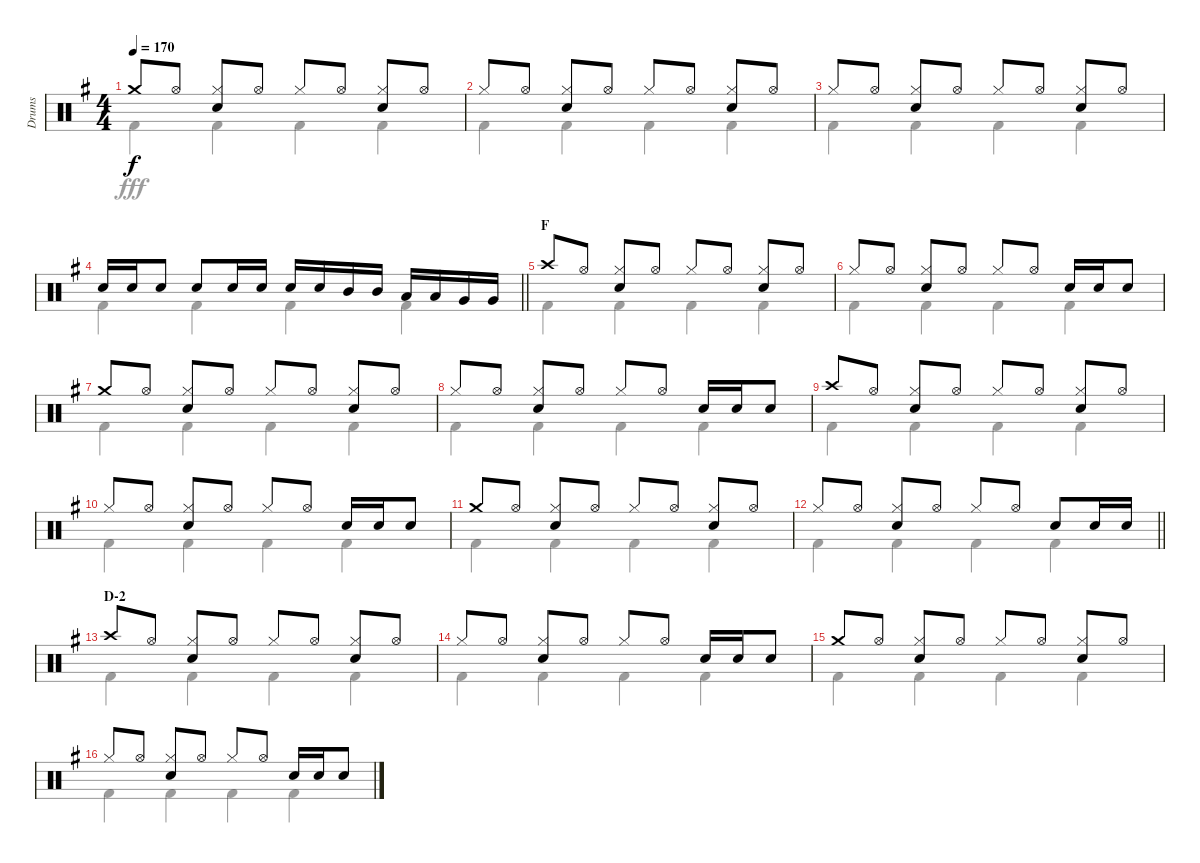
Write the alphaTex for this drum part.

\track ("Drums" "Drums") {instrument percussion}
\staff {score}
\articulation defaults
\voice
\ts (4 4)
\tempo 170
\clef neutral
\ks g "Crash medium (hit)".8{dy f} "Hi-Hat (open)".8
("Hi-Hat (closed)" "Snare (hit) 2").8 "Hi-Hat (open)".8 "Hi-Hat (closed)".8 "Hi-Hat (open)".8 ("Hi-Hat (closed)" "Snare (hit) 2").8 "Hi-Hat (open)".8 |
"Hi-Hat (closed)".8 "Hi-Hat (open)".8 ("Hi-Hat (closed)" "Snare (hit) 2").8 "Hi-Hat (open)".8 "Hi-Hat (closed)".8 "Hi-Hat (open)".8 ("Hi-Hat (closed)" "Snare (hit) 2").8 "Hi-Hat (open)".8 |
"Hi-Hat (closed)".8 "Hi-Hat (open)".8 ("Hi-Hat (closed)" "Snare (hit) 2").8 "Hi-Hat (open)".8 "Hi-Hat (closed)".8 "Hi-Hat (open)".8 ("Hi-Hat (closed)" "Snare (hit) 2").8 "Hi-Hat (open)".8 |
\barLineRight lightlight "Snare (hit) 2".16 "Snare (hit) 2".16 "Snare (hit) 2".8 "Snare (hit) 2".8 "Snare (hit) 2".16 "Snare (hit) 2".16 "Snare (hit) 2".16 "Snare (hit) 2".16 "Mid Tom (hit)".16 "Mid Tom (hit)".16 "Low Tom (hit)".16 "Low Tom (hit)".16 "Very Low Tom (hit)".16 "Very Low Tom (hit)".16
|
\section ("" "F")
"Crash high (hit)".8 "Hi-Hat (open)".8 ("Hi-Hat (closed)" "Snare (hit) 2").8 "Hi-Hat (open)".8 "Hi-Hat (closed)".8 "Hi-Hat (open)".8 ("Hi-Hat (closed)" "Snare (hit) 2").8 "Hi-Hat (open)".8 |
"Hi-Hat (closed)".8 "Hi-Hat (open)".8 ("Hi-Hat (closed)" "Snare (hit) 2").8 "Hi-Hat (open)".8 "Hi-Hat (closed)".8 "Hi-Hat (open)".8 "Snare (hit) 2".16 "Snare (hit) 2".16 "Snare (hit) 2".8 |
"Crash medium (hit)".8 "Hi-Hat (open)".8 ("Hi-Hat (closed)" "Snare (hit) 2").8 "Hi-Hat (open)".8 "Hi-Hat (closed)".8 "Hi-Hat (open)".8 ("Hi-Hat (closed)" "Snare (hit) 2").8 "Hi-Hat (open)".8 |
"Hi-Hat (closed)".8 "Hi-Hat (open)".8 ("Hi-Hat (closed)" "Snare (hit) 2").8 "Hi-Hat (open)".8 "Hi-Hat (closed)".8 "Hi-Hat (open)".8 "Snare (hit) 2".16 "Snare (hit) 2".16 "Snare (hit) 2".8 |
"Crash high (hit)".8 "Hi-Hat (open)".8 ("Hi-Hat (closed)" "Snare (hit) 2").8 "Hi-Hat (open)".8 "Hi-Hat (closed)".8 "Hi-Hat (open)".8 ("Hi-Hat (closed)" "Snare (hit) 2").8 "Hi-Hat (open)".8 |
"Hi-Hat (closed)".8 "Hi-Hat (open)".8 ("Hi-Hat (closed)" "Snare (hit) 2").8 "Hi-Hat (open)".8 "Hi-Hat (closed)".8 "Hi-Hat (open)".8 "Snare (hit) 2".16 "Snare (hit) 2".16 "Snare (hit) 2".8 |
"Crash medium (hit)".8 "Hi-Hat (open)".8 ("Hi-Hat (closed)" "Snare (hit) 2").8 "Hi-Hat (open)".8 "Hi-Hat (closed)".8 "Hi-Hat (open)".8 ("Hi-Hat (closed)" "Snare (hit) 2").8 "Hi-Hat (open)".8 |
\barLineRight lightlight "Hi-Hat (closed)".8 "Hi-Hat (open)".8
("Hi-Hat (closed)" "Snare (hit) 2").8 "Hi-Hat (open)".8 "Hi-Hat (closed)".8 "Hi-Hat (open)".8 "Snare (hit) 2".8 "Snare (hit) 2".16 "Snare (hit) 2".16 |
\section ("" "D-2")
"Crash high (hit)".8 "Hi-Hat (open)".8 ("Hi-Hat (closed)" "Snare (hit) 2").8 "Hi-Hat (open)".8 "Hi-Hat (closed)".8 "Hi-Hat (open)".8 ("Hi-Hat (closed)" "Snare (hit) 2").8 "Hi-Hat (open)".8 |
"Hi-Hat (closed)".8 "Hi-Hat (open)".8 ("Hi-Hat (closed)" "Snare (hit) 2").8 "Hi-Hat (open)".8 "Hi-Hat (closed)".8 "Hi-Hat (open)".8 "Snare (hit) 2".16 "Snare (hit) 2".16 "Snare (hit) 2".8 |
"Crash medium (hit)".8 "Hi-Hat (open)".8 ("Hi-Hat (closed)" "Snare (hit) 2").8 "Hi-Hat (open)".8 "Hi-Hat (closed)".8 "Hi-Hat (open)".8 ("Hi-Hat (closed)" "Snare (hit) 2").8 "Hi-Hat (open)".8 |
"Hi-Hat (closed)".8 "Hi-Hat (open)".8 ("Hi-Hat (closed)" "Snare (hit) 2").8 "Hi-Hat (open)".8 "Hi-Hat (closed)".8 "Hi-Hat (open)".8 "Snare (hit) 2".16 "Snare (hit) 2".16 "Snare (hit) 2".8
\voice
\clef neutral
\ottava regular
\simile none
\ks g "Kick (hit) 2".4{dy fff} "Kick (hit) 2".4 "Kick (hit) 2".4 "Kick (hit) 2".4
|
"Kick (hit) 2".4 "Kick (hit) 2".4 "Kick (hit) 2".4 "Kick (hit) 2".4 |
"Kick (hit) 2".4 "Kick (hit) 2".4 "Kick (hit) 2".4 "Kick (hit) 2".4 |
\barLineRight lightlight "Kick (hit) 2".4 "Kick (hit) 2".4 "Kick (hit) 2".4 "Kick (hit) 2".4
|
"Kick (hit) 2".4 "Kick (hit) 2".4 "Kick (hit) 2".4 "Kick (hit) 2".4 |
"Kick (hit) 2".4 "Kick (hit) 2".4 "Kick (hit) 2".4 "Kick (hit) 2".4 |
"Kick (hit) 2".4 "Kick (hit) 2".4 "Kick (hit) 2".4 "Kick (hit) 2".4 |
"Kick (hit) 2".4 "Kick (hit) 2".4 "Kick (hit) 2".4 "Kick (hit) 2".4 |
"Kick (hit) 2".4 "Kick (hit) 2".4 "Kick (hit) 2".4 "Kick (hit) 2".4 |
"Kick (hit) 2".4 "Kick (hit) 2".4 "Kick (hit) 2".4 "Kick (hit) 2".4 |
"Kick (hit) 2".4 "Kick (hit) 2".4 "Kick (hit) 2".4 "Kick (hit) 2".4 |
\barLineRight lightlight "Kick (hit) 2".4 "Kick (hit) 2".4 "Kick (hit) 2".4 "Kick (hit) 2".4
|
"Kick (hit) 2".4 "Kick (hit) 2".4 "Kick (hit) 2".4 "Kick (hit) 2".4 |
"Kick (hit) 2".4 "Kick (hit) 2".4 "Kick (hit) 2".4 "Kick (hit) 2".4 |
"Kick (hit) 2".4 "Kick (hit) 2".4 "Kick (hit) 2".4 "Kick (hit) 2".4 |
"Kick (hit) 2".4 "Kick (hit) 2".4 "Kick (hit) 2".4 "Kick (hit) 2".4
